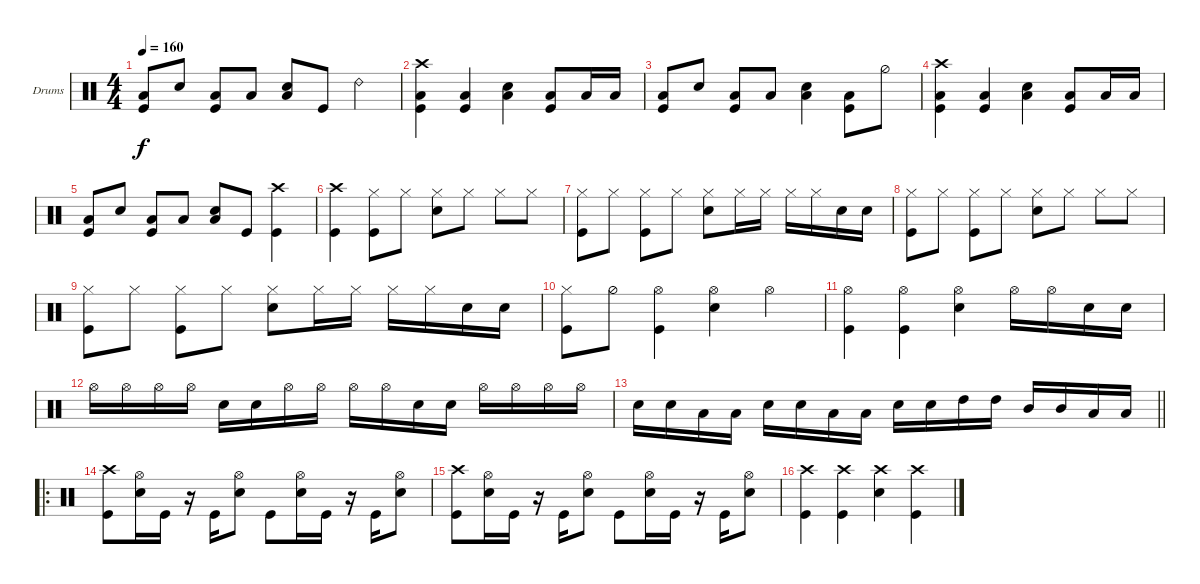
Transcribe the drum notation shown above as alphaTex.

\defaultSystemsLayout 4
\bracketExtendMode groupsimilarinstruments
\firstSystemTrackNameOrientation horizontal
\otherSystemsTrackNameOrientation horizontal
\track ("Drums" "Drums") {instrument percussion}
\staff {score}
\articulation defaults
\ts (4 4)
\tempo 160
\clef neutral
\ks c
("Kick (hit)" "Low Tom (hit)").8{dy f} "Snare (hit) 2".8 ("Kick (hit)" "Low Tom (hit)").8 "Low Tom (hit)".8 ("Snare (hit) 2" "Low Tom (hit)").8 "Kick (hit)".8 "Ride (bell) 2".4 |
("Kick (hit)" "Crash high (hit)" "Low Tom (hit)").4 ("Low Tom (hit)" "Kick (hit)").4 ("Low Tom (hit)" "Snare (hit) 2").4 ("Low Tom (hit)" "Kick (hit)").8 "Low Tom (hit)".16 "Low Tom (hit)".16 |
("Kick (hit)" "Low Tom (hit)").8 "Snare (hit) 2".8 ("Kick (hit)" "Low Tom (hit)").8 "Low Tom (hit)".8 ("Snare (hit) 2" "Low Tom (hit)").4 ("Kick (hit)" "Low Tom (hit)").8 "Hi-Hat (half)".8 |
("Kick (hit)" "Crash high (hit)" "Low Tom (hit)").4 ("Low Tom (hit)" "Kick (hit)").4 ("Low Tom (hit)" "Snare (hit) 2").4 ("Low Tom (hit)" "Kick (hit)").8 "Low Tom (hit)".16 "Low Tom (hit)".16 |
("Kick (hit)" "Low Tom (hit)").8 "Snare (hit) 2".8 ("Kick (hit)" "Low Tom (hit)").8 "Low Tom (hit)".8 ("Snare (hit) 2" "Low Tom (hit)").8 "Kick (hit)".8 ("Kick (hit)" "Crash high (hit)").4 |
("Kick (hit)" "Crash high (hit)").4 ("Hi-Hat (closed)" "Kick (hit)").8 "Hi-Hat (closed)".8 ("Hi-Hat (closed)" "Snare (hit) 2").8 "Hi-Hat (closed)".8 "Hi-Hat (closed)".8 "Hi-Hat (closed)".8 |
("Hi-Hat (closed)" "Kick (hit)").8 "Hi-Hat (closed)".8 ("Hi-Hat (closed)" "Kick (hit)").8 "Hi-Hat (closed)".8 ("Hi-Hat (closed)" "Snare (hit) 2").8 "Hi-Hat (closed)".16 "Hi-Hat (closed)".16 "Hi-Hat (closed)".16 "Hi-Hat (closed)".16 "Snare (hit) 2".16 "Snare (hit) 2".16 |
("Hi-Hat (closed)" "Kick (hit)").8 "Hi-Hat (closed)".8 ("Hi-Hat (closed)" "Kick (hit)").8 "Hi-Hat (closed)".8 ("Hi-Hat (closed)" "Snare (hit) 2").8 "Hi-Hat (closed)".8 "Hi-Hat (closed)".8 "Hi-Hat (closed)".8 |
("Hi-Hat (closed)" "Kick (hit)").8 "Hi-Hat (closed)".8 ("Hi-Hat (closed)" "Kick (hit)").8 "Hi-Hat (closed)".8 ("Hi-Hat (closed)" "Snare (hit) 2").8 "Hi-Hat (closed)".16 "Hi-Hat (closed)".16 "Hi-Hat (closed)".16 "Hi-Hat (closed)".16 "Snare (hit) 2".16 "Snare (hit) 2".16 |
("Hi-Hat (closed)" "Kick (hit)").8 "Hi-Hat (half)".8 ("Kick (hit)" "Hi-Hat (open)").4 ("Hi-Hat (open)" "Snare (hit) 2").4 "Hi-Hat (open)".4 |
("Kick (hit)" "Hi-Hat (open)").4 ("Kick (hit)" "Hi-Hat (open)").4 ("Hi-Hat (open)" "Snare (hit) 2").4 "Hi-Hat (open)".16 "Hi-Hat (open)".16 "Snare (hit) 2".16 "Snare (hit) 2".16 |
"Hi-Hat (open)".16 "Hi-Hat (open)".16 "Hi-Hat (open)".16 "Hi-Hat (open)".16 "Snare (hit) 2".16 "Snare (hit) 2".16 "Hi-Hat (open)".16 "Hi-Hat (open)".16 "Hi-Hat (open)".16 "Hi-Hat (open)".16 "Snare (hit) 2".16 "Snare (hit) 2".16 "Hi-Hat (open)".16 "Hi-Hat (open)".16 "Hi-Hat (open)".16 "Hi-Hat (open)".16 |
\barLineRight lightlight "Snare (hit) 2".16 "Snare (hit) 2".16 "Low Tom (hit)".16 "Low Tom (hit)".16 "Snare (hit) 2".16 "Snare (hit) 2".16 "Low Tom (hit)".16 "Low Tom (hit)".16 "Snare (hit) 2".16 "Snare (hit) 2".16 "High Tom (hit)".16 "High Tom (hit)".16 "Mid Tom (hit)".16 "Mid Tom (hit)".16 "Low Tom (hit)".16 "Low Tom (hit)".16
|
\ro
("Kick (hit)" "Crash high (hit)").8 ("Snare (hit) 2" "Hi-Hat (open)").16 "Kick (hit)".16 r.16 "Kick (hit)".16 ("Snare (hit) 2" "Hi-Hat (open)").8 "Kick (hit)".8 ("Snare (hit) 2" "Hi-Hat (open)").16 "Kick (hit)".16 r.16 "Kick (hit)".16 ("Snare (hit) 2" "Hi-Hat (open)").8 |
("Kick (hit)" "Crash high (hit)").8 ("Snare (hit) 2" "Hi-Hat (open)").16 "Kick (hit)".16 r.16 "Kick (hit)".16 ("Snare (hit) 2" "Hi-Hat (open)").8 "Kick (hit)".8 ("Snare (hit) 2" "Hi-Hat (open)").16 "Kick (hit)".16 r.16 "Kick (hit)".16 ("Snare (hit) 2" "Hi-Hat (open)").8 |
("Kick (hit)" "Crash high (hit)").4 ("Kick (hit)" "Crash high (hit)").4 ("Crash high (hit)" "Snare (hit) 2").4 ("Kick (hit)" "Crash high (hit)").4
